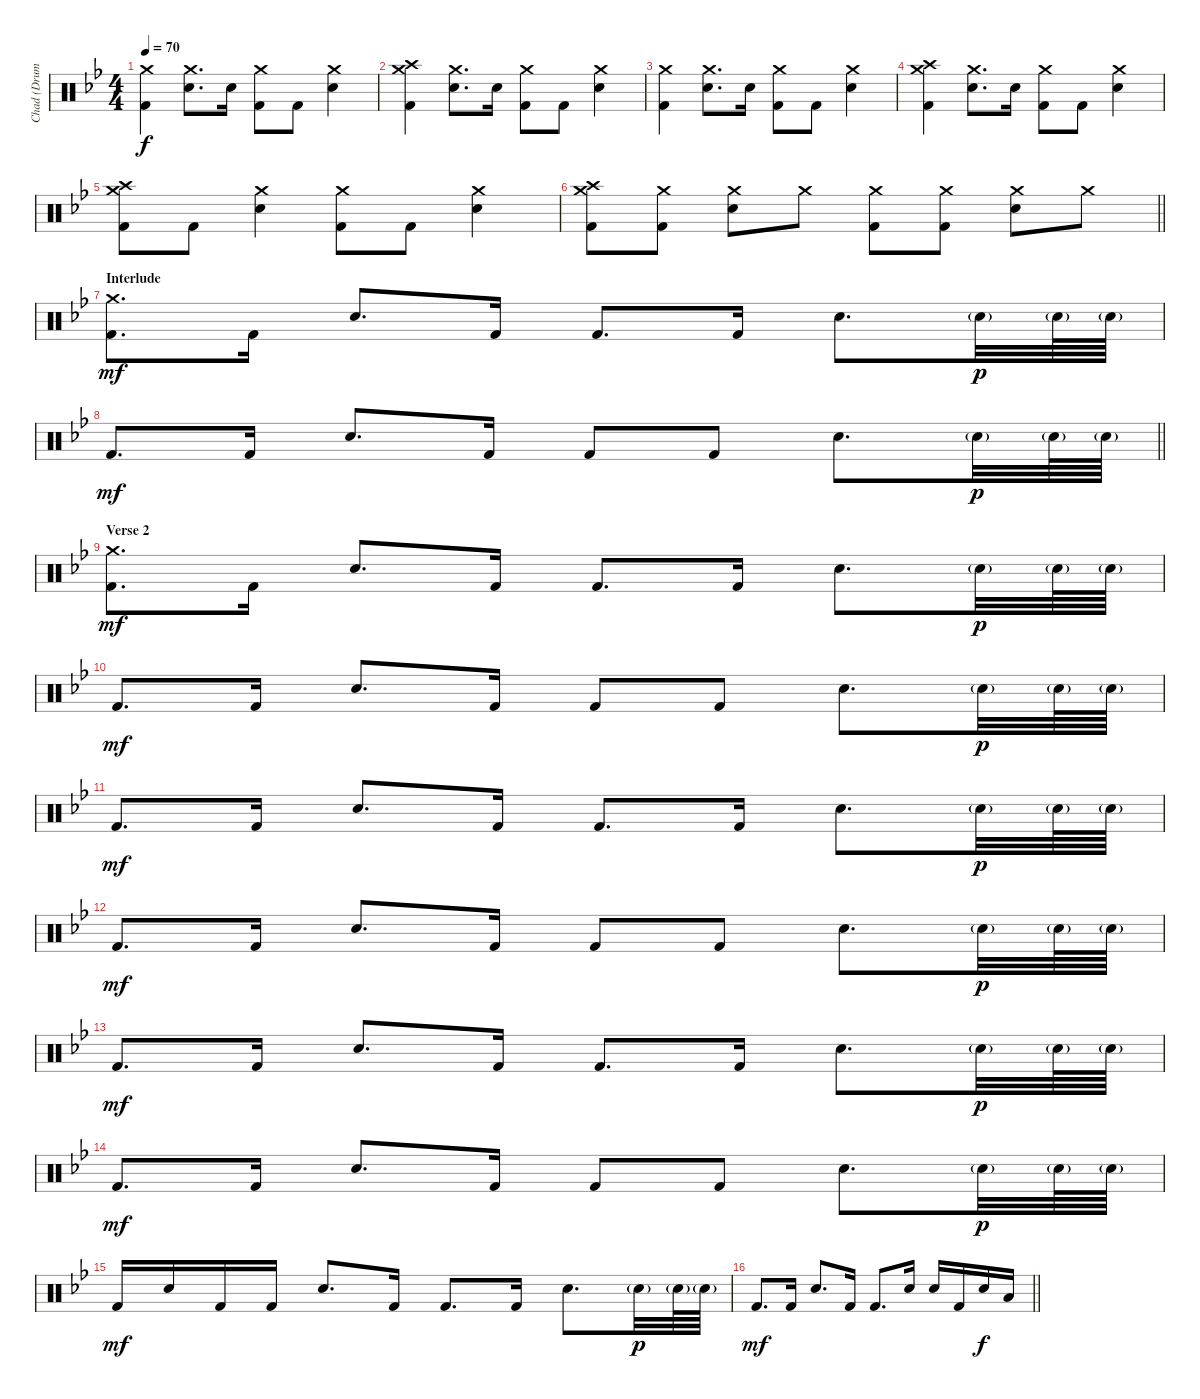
\track ("Chad (Drums)" "Chad (Drum") {instrument percussion}
\staff {score}
\articulation defaults
\ts (4 4)
\tempo 70
\clef neutral
\ks bb
("Crash medium (hit)" "Kick (hit) 2").4{dy f} ("Crash medium (hit)" "Snare (hit) 2").8{d} "Snare (hit) 2".16 ("Crash medium (hit)" "Kick (hit) 2").8 "Kick (hit) 2".8 ("Crash medium (hit)" "Snare (hit) 2").4 |
("Crash medium (hit)" "Crash high (hit)" "Kick (hit) 2").4 ("Crash medium (hit)" "Snare (hit) 2").8{d} "Snare (hit) 2".16 ("Crash medium (hit)" "Kick (hit) 2").8 "Kick (hit) 2".8 ("Crash medium (hit)" "Snare (hit) 2").4 |
("Crash medium (hit)" "Kick (hit) 2").4 ("Crash medium (hit)" "Snare (hit) 2").8{d} "Snare (hit) 2".16 ("Crash medium (hit)" "Kick (hit) 2").8 "Kick (hit) 2".8 ("Crash medium (hit)" "Snare (hit) 2").4 |
("Crash medium (hit)" "Crash high (hit)" "Kick (hit) 2").4 ("Crash medium (hit)" "Snare (hit) 2").8{d} "Snare (hit) 2".16 ("Crash medium (hit)" "Kick (hit) 2").8 "Kick (hit) 2".8 ("Crash medium (hit)" "Snare (hit) 2").4 |
("Crash medium (hit)" "Crash high (hit)" "Kick (hit) 2").8 "Kick (hit) 2".8 ("Crash medium (hit)" "Snare (hit) 2").4 ("Crash medium (hit)" "Kick (hit) 2").8 "Kick (hit) 2".8 ("Crash medium (hit)" "Snare (hit) 2").4 |
\barLineRight lightlight
("Crash medium (hit)" "Crash high (hit)" "Kick (hit) 2").8 ("Crash medium (hit)" "Kick (hit) 2").8 ("Crash medium (hit)" "Snare (hit) 2").8 "Crash medium (hit)".8 ("Crash medium (hit)" "Kick (hit) 2").8 ("Crash medium (hit)" "Kick (hit) 2").8 ("Crash medium (hit)" "Snare (hit) 2").8 "Crash medium (hit)".8 |
\section ("" "Interlude")
("Crash medium (hit)" "Kick (hit) 2").8{d dy mf} "Kick (hit) 2".16 "Snare (hit) 2".8{d} "Kick (hit) 2".16 "Kick (hit) 2".8{d} "Kick (hit) 2".16 "Snare (hit) 2".8{d} "Snare (hit) 2"{g}.32{dy p} "Snare (hit) 2"{g}.64 "Snare (hit) 2"{g}.64 |
\barLineRight lightlight "Kick (hit) 2".8{d dy mf} "Kick (hit) 2".16 "Snare (hit) 2".8{d} "Kick (hit) 2".16 "Kick (hit) 2".8 "Kick (hit) 2".8 "Snare (hit) 2".8{d} "Snare (hit) 2"{g}.32{dy p} "Snare (hit) 2"{g}.64 "Snare (hit) 2"{g}.64
|
\section ("" "Verse 2")
("Crash medium (hit)" "Kick (hit) 2").8{d dy mf} "Kick (hit) 2".16 "Snare (hit) 2".8{d} "Kick (hit) 2".16 "Kick (hit) 2".8{d} "Kick (hit) 2".16 "Snare (hit) 2".8{d} "Snare (hit) 2"{g}.32{dy p} "Snare (hit) 2"{g}.64 "Snare (hit) 2"{g}.64 |
"Kick (hit) 2".8{d dy mf} "Kick (hit) 2".16 "Snare (hit) 2".8{d} "Kick (hit) 2".16 "Kick (hit) 2".8 "Kick (hit) 2".8 "Snare (hit) 2".8{d} "Snare (hit) 2"{g}.32{dy p} "Snare (hit) 2"{g}.64 "Snare (hit) 2"{g}.64 |
"Kick (hit) 2".8{d dy mf} "Kick (hit) 2".16 "Snare (hit) 2".8{d} "Kick (hit) 2".16 "Kick (hit) 2".8{d} "Kick (hit) 2".16 "Snare (hit) 2".8{d} "Snare (hit) 2"{g}.32{dy p} "Snare (hit) 2"{g}.64 "Snare (hit) 2"{g}.64 |
"Kick (hit) 2".8{d dy mf} "Kick (hit) 2".16 "Snare (hit) 2".8{d} "Kick (hit) 2".16 "Kick (hit) 2".8 "Kick (hit) 2".8 "Snare (hit) 2".8{d} "Snare (hit) 2"{g}.32{dy p} "Snare (hit) 2"{g}.64 "Snare (hit) 2"{g}.64 |
"Kick (hit) 2".8{d dy mf} "Kick (hit) 2".16 "Snare (hit) 2".8{d} "Kick (hit) 2".16 "Kick (hit) 2".8{d} "Kick (hit) 2".16 "Snare (hit) 2".8{d} "Snare (hit) 2"{g}.32{dy p} "Snare (hit) 2"{g}.64 "Snare (hit) 2"{g}.64 |
"Kick (hit) 2".8{d dy mf} "Kick (hit) 2".16 "Snare (hit) 2".8{d} "Kick (hit) 2".16 "Kick (hit) 2".8 "Kick (hit) 2".8 "Snare (hit) 2".8{d} "Snare (hit) 2"{g}.32{dy p} "Snare (hit) 2"{g}.64 "Snare (hit) 2"{g}.64 |
"Kick (hit) 2".16{dy mf} "Snare (hit) 2".16 "Kick (hit) 2".16 "Kick (hit) 2".16 "Snare (hit) 2".8{d} "Kick (hit) 2".16 "Kick (hit) 2".8{d} "Kick (hit) 2".16 "Snare (hit) 2".8{d} "Snare (hit) 2"{g}.32{dy p} "Snare (hit) 2"{g}.64 "Snare (hit) 2"{g}.64 |
\barLineRight lightlight "Kick (hit) 2".8{d dy mf} "Kick (hit) 2".16 "Snare (hit) 2".8{d} "Kick (hit) 2".16 "Kick (hit) 2".8{d} "Snare (hit) 2".16 "Snare (hit) 2".16 "Kick (hit) 2".16 "Snare (hit) 2".16{dy f} "Low Floor Tom (hit)".16
